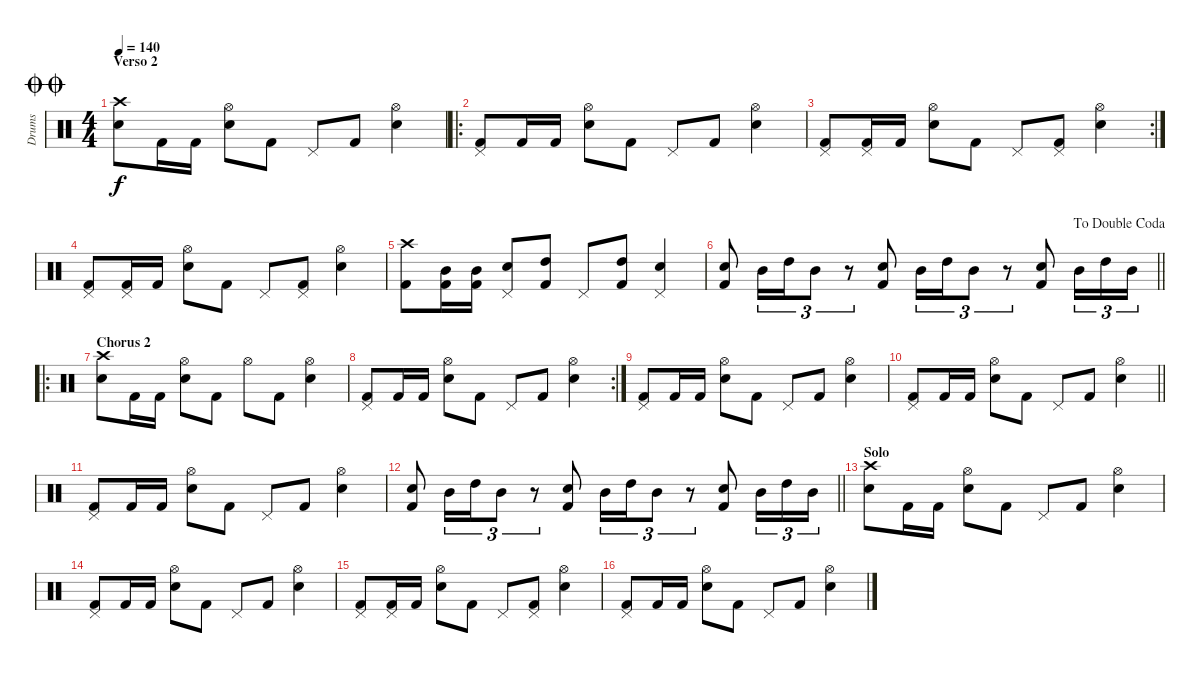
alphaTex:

\track ("Drums" "Drums") {instrument percussion}
\staff {score}
\articulation defaults
\ts (4 4)
\section ("" "Verso 2")
\jump doublecoda
\tempo 140
\clef neutral
\ks c
("Crash high (hit)" "Electric Snare (hit)").8{dy f} "Kick (hit) 2".16 "Kick (hit) 2".16 ("Hi-Hat (open)" "Electric Snare (hit)").8 "Kick (hit) 2".8 "Pedal Hi-Hat (hit)".8 "Kick (hit) 2".8 ("Hi-Hat (open)" "Electric Snare (hit)").4 |
\ro
("Pedal Hi-Hat (hit)" "Kick (hit) 2").8 "Kick (hit) 2".16 "Kick (hit) 2".16 ("Hi-Hat (open)" "Electric Snare (hit)").8 "Kick (hit) 2".8 "Pedal Hi-Hat (hit)".8 "Kick (hit) 2".8 ("Hi-Hat (open)" "Electric Snare (hit)").4 |
\rc 2
("Pedal Hi-Hat (hit)" "Kick (hit) 2").8 ("Pedal Hi-Hat (hit)" "Kick (hit) 2").16 "Kick (hit) 2".16 ("Hi-Hat (open)" "Electric Snare (hit)").8 "Kick (hit) 2".8 "Pedal Hi-Hat (hit)".8 ("Pedal Hi-Hat (hit)" "Kick (hit) 2").8 ("Hi-Hat (open)" "Electric Snare (hit)").4 |
("Pedal Hi-Hat (hit)" "Kick (hit) 2").8 ("Pedal Hi-Hat (hit)" "Kick (hit) 2").16 "Kick (hit) 2".16 ("Hi-Hat (open)" "Electric Snare (hit)").8 "Kick (hit) 2".8 "Pedal Hi-Hat (hit)".8 ("Pedal Hi-Hat (hit)" "Kick (hit) 2").8 ("Hi-Hat (open)" "Electric Snare (hit)").4 |
("Crash high (hit)" "Kick (hit) 2").8 ("Mid Tom (hit)" "Kick (hit) 2").16 ("Mid Tom (hit)" "Kick (hit) 2").16 ("Pedal Hi-Hat (hit)" "Electric Snare (hit)").8 ("High Tom (hit)" "Kick (hit) 2").8 "Pedal Hi-Hat (hit)".8 ("High Tom (hit)" "Kick (hit) 2").8 ("Pedal Hi-Hat (hit)" "Electric Snare (hit)").4 |
\jump dadoublecoda
\barLineRight lightlight
("Electric Snare (hit)" "Kick (hit) 2").8 "Mid Tom (hit)".16{tu (3 2)} "High Tom (hit)".16{tu (3 2)} "Mid Tom (hit)".8{tu (3 2)} r.8{tu (3 2)} ("Electric Snare (hit)" "Kick (hit) 2").8 "Mid Tom (hit)".16{tu (3 2)} "High Tom (hit)".16{tu (3 2)} "Mid Tom (hit)".8{tu (3 2)} r.8{tu (3 2)} ("Electric Snare (hit)" "Kick (hit) 2").8 "Mid Tom (hit)".16{tu (3 2)} "High Tom (hit)".16{tu (3 2)} "Mid Tom (hit)".16{tu (3 2)} |
\ro
\section ("" "Chorus 2")
("Crash high (hit)" "Electric Snare (hit)").8 "Kick (hit) 2".16 "Kick (hit) 2".16 ("Hi-Hat (open)" "Electric Snare (hit)").8 "Kick (hit) 2".8 "Hi-Hat (open)".8 "Kick (hit) 2".8 ("Hi-Hat (open)" "Electric Snare (hit)").4 |
\rc 2
("Pedal Hi-Hat (hit)" "Kick (hit) 2").8 "Kick (hit) 2".16 "Kick (hit) 2".16 ("Hi-Hat (open)" "Electric Snare (hit)").8 "Kick (hit) 2".8 "Pedal Hi-Hat (hit)".8 "Kick (hit) 2".8 ("Hi-Hat (open)" "Electric Snare (hit)").4 |
("Pedal Hi-Hat (hit)" "Kick (hit) 2").8 "Kick (hit) 2".16 "Kick (hit) 2".16 ("Hi-Hat (open)" "Electric Snare (hit)").8 "Kick (hit) 2".8 "Pedal Hi-Hat (hit)".8 "Kick (hit) 2".8 ("Hi-Hat (open)" "Electric Snare (hit)").4 |
\barLineRight lightlight
("Pedal Hi-Hat (hit)" "Kick (hit) 2").8 "Kick (hit) 2".16 "Kick (hit) 2".16 ("Hi-Hat (open)" "Electric Snare (hit)").8 "Kick (hit) 2".8 "Pedal Hi-Hat (hit)".8 "Kick (hit) 2".8 ("Hi-Hat (open)" "Electric Snare (hit)").4 |
("Pedal Hi-Hat (hit)" "Kick (hit) 2").8 "Kick (hit) 2".16 "Kick (hit) 2".16 ("Hi-Hat (open)" "Electric Snare (hit)").8 "Kick (hit) 2".8 "Pedal Hi-Hat (hit)".8 "Kick (hit) 2".8 ("Hi-Hat (open)" "Electric Snare (hit)").4 |
\barLineRight lightlight
("Electric Snare (hit)" "Kick (hit) 2").8 "Mid Tom (hit)".16{tu (3 2)} "High Tom (hit)".16{tu (3 2)} "Mid Tom (hit)".8{tu (3 2)} r.8{tu (3 2)} ("Electric Snare (hit)" "Kick (hit) 2").8 "Mid Tom (hit)".16{tu (3 2)} "High Tom (hit)".16{tu (3 2)} "Mid Tom (hit)".8{tu (3 2)} r.8{tu (3 2)} ("Electric Snare (hit)" "Kick (hit) 2").8 "Mid Tom (hit)".16{tu (3 2)} "High Tom (hit)".16{tu (3 2)} "Mid Tom (hit)".16{tu (3 2)} |
\section ("" "Solo")
("Crash high (hit)" "Electric Snare (hit)").8 "Kick (hit) 2".16 "Kick (hit) 2".16 ("Hi-Hat (open)" "Electric Snare (hit)").8 "Kick (hit) 2".8 "Pedal Hi-Hat (hit)".8 "Kick (hit) 2".8 ("Hi-Hat (open)" "Electric Snare (hit)").4 |
("Pedal Hi-Hat (hit)" "Kick (hit) 2").8 "Kick (hit) 2".16 "Kick (hit) 2".16 ("Hi-Hat (open)" "Electric Snare (hit)").8 "Kick (hit) 2".8 "Pedal Hi-Hat (hit)".8 "Kick (hit) 2".8 ("Hi-Hat (open)" "Electric Snare (hit)").4 |
("Pedal Hi-Hat (hit)" "Kick (hit) 2").8 ("Pedal Hi-Hat (hit)" "Kick (hit) 2").16 "Kick (hit) 2".16 ("Hi-Hat (open)" "Electric Snare (hit)").8 "Kick (hit) 2".8 "Pedal Hi-Hat (hit)".8 ("Pedal Hi-Hat (hit)" "Kick (hit) 2").8 ("Hi-Hat (open)" "Electric Snare (hit)").4 |
("Pedal Hi-Hat (hit)" "Kick (hit) 2").8 "Kick (hit) 2".16 "Kick (hit) 2".16 ("Hi-Hat (open)" "Electric Snare (hit)").8 "Kick (hit) 2".8 "Pedal Hi-Hat (hit)".8 "Kick (hit) 2".8 ("Hi-Hat (open)" "Electric Snare (hit)").4
